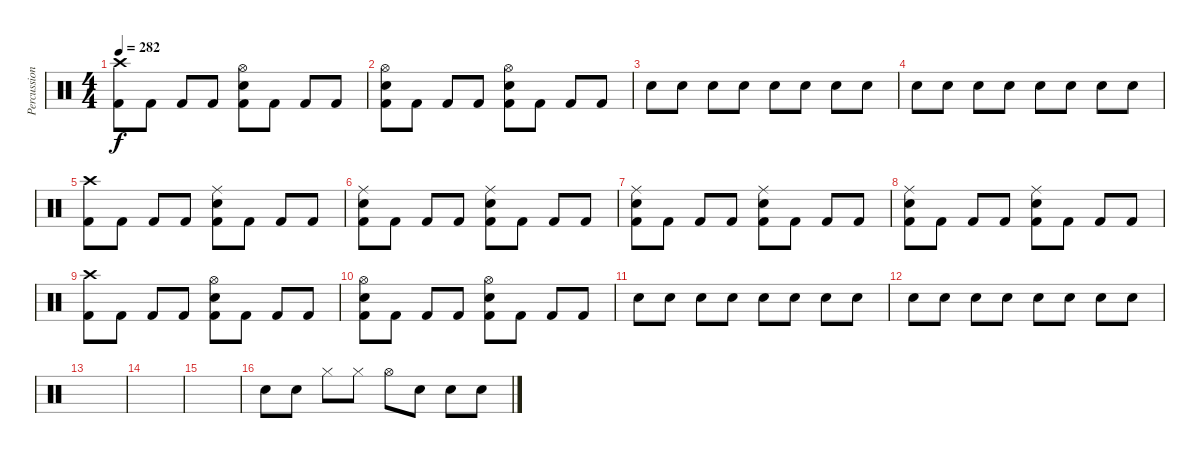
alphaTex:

\track ("Percussion" "Percussion") {instrument percussion}
\staff {score}
\articulation defaults
\ts (4 4)
\tempo 282
\clef neutral
\ks c
("Kick (hit) 2" "Crash high (hit)").8{dy f} "Kick (hit) 2".8 "Kick (hit) 2".8 "Kick (hit) 2".8 ("Kick (hit) 2" "Snare (hit) 2" "Hi-Hat (open)").8 "Kick (hit) 2".8 "Kick (hit) 2".8 "Kick (hit) 2".8 |
("Kick (hit) 2" "Snare (hit) 2" "Hi-Hat (open)").8 "Kick (hit) 2".8 "Kick (hit) 2".8 "Kick (hit) 2".8 ("Kick (hit) 2" "Snare (hit) 2" "Hi-Hat (open)").8 "Kick (hit) 2".8 "Kick (hit) 2".8 "Kick (hit) 2".8 |
"Snare (hit) 2".8 "Snare (hit) 2".8 "Snare (hit) 2".8 "Snare (hit) 2".8 "Snare (hit)"{x}.8 "Snare (hit)"{x}.8 "Snare (hit) 2".8 "Snare (hit) 2".8 |
"Snare (hit) 2".8 "Snare (hit) 2".8 "Snare (hit)"{x}.8 "Snare (hit) 2"{x}.8 "Snare (hit) 2".8 "Snare (hit) 2".8 "Snare (hit) 2".8 "Snare (hit) 2".8 |
("Kick (hit) 2" "Crash high (hit)").8 "Kick (hit) 2".8 "Kick (hit) 2".8 "Kick (hit) 2".8 ("Kick (hit) 2" "Snare (hit) 2" "Ride (middle)").8 "Kick (hit) 2".8 "Kick (hit) 2".8 "Kick (hit) 2".8 |
("Kick (hit) 2" "Snare (hit) 2" "Ride (middle)").8 "Kick (hit) 2".8 "Kick (hit) 2".8 "Kick (hit) 2".8 ("Kick (hit) 2" "Snare (hit) 2" "Ride (middle)").8 "Kick (hit) 2".8 "Kick (hit) 2".8 "Kick (hit) 2".8 |
("Kick (hit) 2" "Snare (hit) 2" "Ride (middle)").8 "Kick (hit) 2".8 "Kick (hit) 2".8 "Kick (hit) 2".8 ("Kick (hit) 2" "Snare (hit) 2" "Ride (middle)").8 "Kick (hit) 2".8 "Kick (hit) 2".8 "Kick (hit) 2".8 |
("Kick (hit) 2" "Snare (hit) 2" "Ride (middle)").8 "Kick (hit) 2".8 "Kick (hit) 2".8 "Kick (hit) 2".8 ("Kick (hit) 2" "Snare (hit) 2" "Ride (middle)").8 "Kick (hit) 2".8 "Kick (hit) 2".8 "Kick (hit) 2".8 |
("Kick (hit) 2" "Crash high (hit)").8 "Kick (hit) 2".8 "Kick (hit) 2".8 "Kick (hit) 2".8 ("Kick (hit) 2" "Snare (hit) 2" "Hi-Hat (open)").8 "Kick (hit) 2".8 "Kick (hit) 2".8 "Kick (hit) 2".8 |
("Kick (hit) 2" "Snare (hit) 2" "Hi-Hat (open)").8 "Kick (hit) 2".8 "Kick (hit) 2".8 "Kick (hit) 2".8 ("Kick (hit) 2" "Snare (hit) 2" "Hi-Hat (open)").8 "Kick (hit) 2".8 "Kick (hit) 2".8 "Kick (hit) 2".8 |
"Snare (hit) 2".8 "Snare (hit) 2".8 "Snare (hit) 2".8 "Snare (hit) 2".8 "Snare (hit)"{x}.8 "Snare (hit)"{x}.8 "Snare (hit) 2".8 "Snare (hit) 2".8 |
"Snare (hit) 2".8 "Snare (hit) 2".8 "Snare (hit)"{x}.8 "Snare (hit) 2"{x}.8 "Snare (hit) 2".8 "Snare (hit) 2".8 "Snare (hit) 2".8 "Snare (hit) 2".8 |
|
|
|
"Snare (hit)"{x}.8 "Snare (hit)"{x}.8 "Hi-Hat (closed)".8 "Hi-Hat (closed)".8 "Hi-Hat (open)".8 "Snare (hit)"{x}.8 "Snare (hit)"{x}.8 "Snare (hit)"{x}.8
